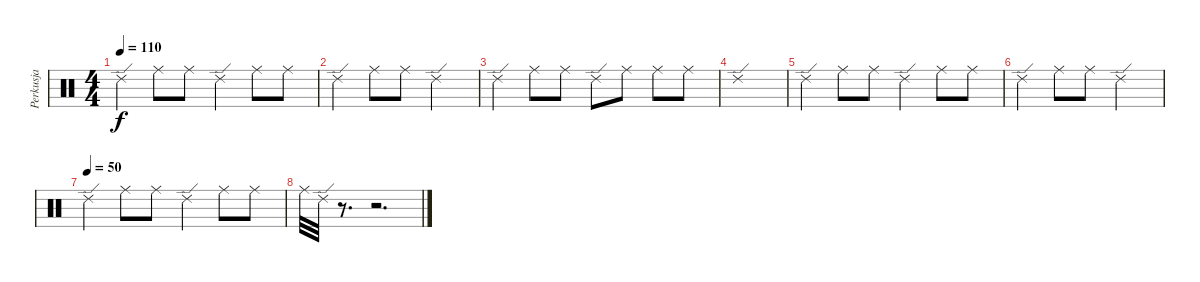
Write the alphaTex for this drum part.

\track ("Perkusja" "Perkusja") {instrument percussion}
\staff {score}
\articulation defaults
\ts (4 4)
\tempo 110
\clef neutral
\ks c "Ride (edge) 2".4{dy f} "Ride (middle)".8 "Ride (middle)".8 "Ride (edge) 2".4 "Ride (middle)".8 "Ride (middle)".8
|
"Ride (edge) 2".4 "Ride (middle)".8 "Ride (middle)".8 "Ride (edge) 2".2 |
"Ride (edge) 2".4 "Ride (middle)".8 "Ride (middle)".8 "Ride (edge) 2".8 "Ride (middle)".8 "Ride (middle)".8 "Ride (middle)".8 |
"Ride (edge) 2".1 |
"Ride (edge) 2".4 "Ride (middle)".8 "Ride (middle)".8 "Ride (edge) 2".4 "Ride (middle)".8 "Ride (middle)".8 |
"Ride (edge) 2".4 "Ride (middle)".8 "Ride (middle)".8 "Ride (edge) 2".2 |
\tempo (50)
"Ride (edge) 2".4 "Ride (middle)".8 "Ride (middle)".8 "Ride (edge) 2".4 "Ride (middle)".8 "Ride (middle)".8 |
"Ride (middle)".32 "Ride (edge) 2".32 r.8{d} r.2{d}
